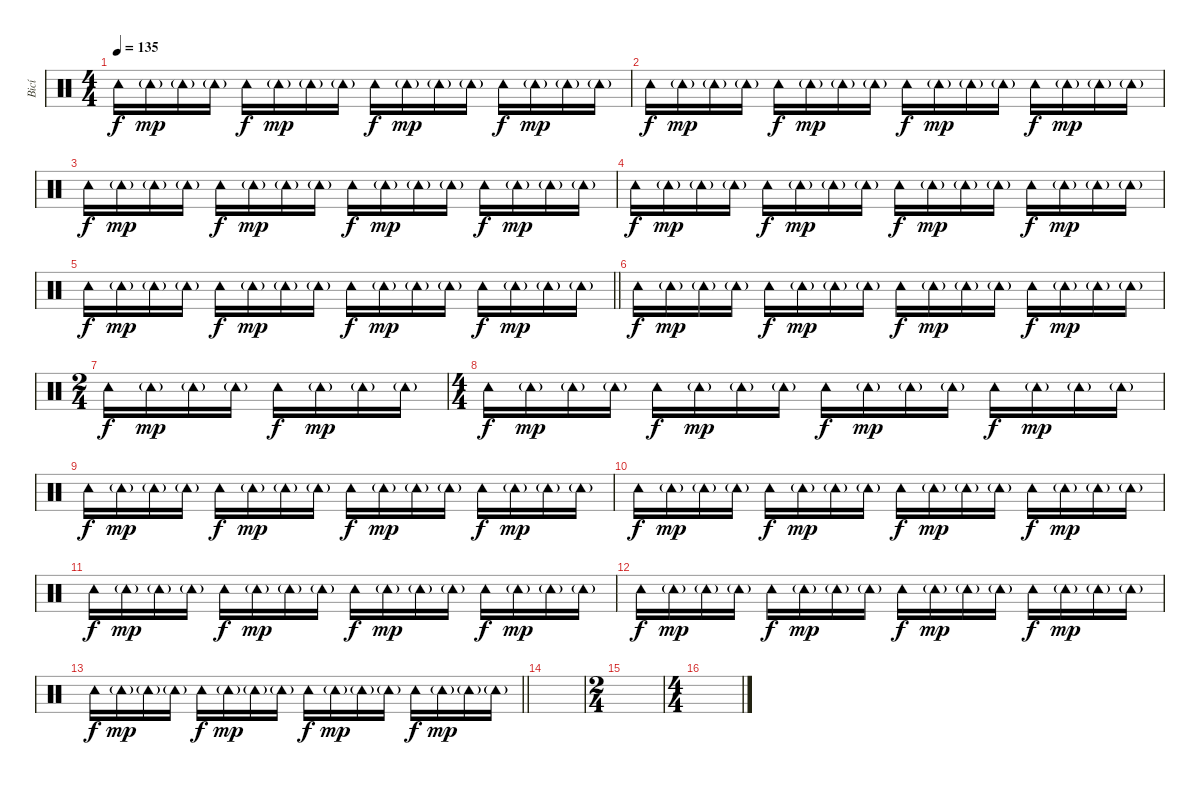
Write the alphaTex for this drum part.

\track ("Bicí" "Bicí") {instrument percussion}
\staff {score}
\articulation defaults
\ts (4 4)
\tempo 135
\clef neutral
\ks c "Tambourine (hit)".16{dy f} "Tambourine (hit)"{g}.16{dy mp} "Tambourine (hit)"{g}.16 "Tambourine (hit)"{g}.16 "Tambourine (hit)".16{dy f} "Tambourine (hit)"{g}.16{dy mp} "Tambourine (hit)"{g}.16 "Tambourine (hit)"{g}.16 "Tambourine (hit)".16{dy f} "Tambourine (hit)"{g}.16{dy mp} "Tambourine (hit)"{g}.16 "Tambourine (hit)"{g}.16 "Tambourine (hit)".16{dy f} "Tambourine (hit)"{g}.16{dy mp} "Tambourine (hit)"{g}.16 "Tambourine (hit)"{g}.16
|
"Tambourine (hit)".16{dy f} "Tambourine (hit)"{g}.16{dy mp} "Tambourine (hit)"{g}.16 "Tambourine (hit)"{g}.16 "Tambourine (hit)".16{dy f} "Tambourine (hit)"{g}.16{dy mp} "Tambourine (hit)"{g}.16 "Tambourine (hit)"{g}.16 "Tambourine (hit)".16{dy f} "Tambourine (hit)"{g}.16{dy mp} "Tambourine (hit)"{g}.16 "Tambourine (hit)"{g}.16 "Tambourine (hit)".16{dy f} "Tambourine (hit)"{g}.16{dy mp} "Tambourine (hit)"{g}.16 "Tambourine (hit)"{g}.16 |
"Tambourine (hit)".16{dy f} "Tambourine (hit)"{g}.16{dy mp} "Tambourine (hit)"{g}.16 "Tambourine (hit)"{g}.16 "Tambourine (hit)".16{dy f} "Tambourine (hit)"{g}.16{dy mp} "Tambourine (hit)"{g}.16 "Tambourine (hit)"{g}.16 "Tambourine (hit)".16{dy f} "Tambourine (hit)"{g}.16{dy mp} "Tambourine (hit)"{g}.16 "Tambourine (hit)"{g}.16 "Tambourine (hit)".16{dy f} "Tambourine (hit)"{g}.16{dy mp} "Tambourine (hit)"{g}.16 "Tambourine (hit)"{g}.16 |
"Tambourine (hit)".16{dy f} "Tambourine (hit)"{g}.16{dy mp} "Tambourine (hit)"{g}.16 "Tambourine (hit)"{g}.16 "Tambourine (hit)".16{dy f} "Tambourine (hit)"{g}.16{dy mp} "Tambourine (hit)"{g}.16 "Tambourine (hit)"{g}.16 "Tambourine (hit)".16{dy f} "Tambourine (hit)"{g}.16{dy mp} "Tambourine (hit)"{g}.16 "Tambourine (hit)"{g}.16 "Tambourine (hit)".16{dy f} "Tambourine (hit)"{g}.16{dy mp} "Tambourine (hit)"{g}.16 "Tambourine (hit)"{g}.16 |
\barLineRight lightlight "Tambourine (hit)".16{dy f} "Tambourine (hit)"{g}.16{dy mp} "Tambourine (hit)"{g}.16 "Tambourine (hit)"{g}.16 "Tambourine (hit)".16{dy f} "Tambourine (hit)"{g}.16{dy mp} "Tambourine (hit)"{g}.16 "Tambourine (hit)"{g}.16 "Tambourine (hit)".16{dy f} "Tambourine (hit)"{g}.16{dy mp} "Tambourine (hit)"{g}.16 "Tambourine (hit)"{g}.16 "Tambourine (hit)".16{dy f} "Tambourine (hit)"{g}.16{dy mp} "Tambourine (hit)"{g}.16 "Tambourine (hit)"{g}.16
|
"Tambourine (hit)".16{dy f} "Tambourine (hit)"{g}.16{dy mp} "Tambourine (hit)"{g}.16 "Tambourine (hit)"{g}.16 "Tambourine (hit)".16{dy f} "Tambourine (hit)"{g}.16{dy mp} "Tambourine (hit)"{g}.16 "Tambourine (hit)"{g}.16 "Tambourine (hit)".16{dy f} "Tambourine (hit)"{g}.16{dy mp} "Tambourine (hit)"{g}.16 "Tambourine (hit)"{g}.16 "Tambourine (hit)".16{dy f} "Tambourine (hit)"{g}.16{dy mp} "Tambourine (hit)"{g}.16 "Tambourine (hit)"{g}.16 |
\ts (2 4)
"Tambourine (hit)".16{dy f} "Tambourine (hit)"{g}.16{dy mp} "Tambourine (hit)"{g}.16 "Tambourine (hit)"{g}.16 "Tambourine (hit)".16{dy f} "Tambourine (hit)"{g}.16{dy mp} "Tambourine (hit)"{g}.16 "Tambourine (hit)"{g}.16 |
\ts (4 4)
"Tambourine (hit)".16{dy f} "Tambourine (hit)"{g}.16{dy mp} "Tambourine (hit)"{g}.16 "Tambourine (hit)"{g}.16 "Tambourine (hit)".16{dy f} "Tambourine (hit)"{g}.16{dy mp} "Tambourine (hit)"{g}.16 "Tambourine (hit)"{g}.16 "Tambourine (hit)".16{dy f} "Tambourine (hit)"{g}.16{dy mp} "Tambourine (hit)"{g}.16 "Tambourine (hit)"{g}.16 "Tambourine (hit)".16{dy f} "Tambourine (hit)"{g}.16{dy mp} "Tambourine (hit)"{g}.16 "Tambourine (hit)"{g}.16 |
"Tambourine (hit)".16{dy f} "Tambourine (hit)"{g}.16{dy mp} "Tambourine (hit)"{g}.16 "Tambourine (hit)"{g}.16 "Tambourine (hit)".16{dy f} "Tambourine (hit)"{g}.16{dy mp} "Tambourine (hit)"{g}.16 "Tambourine (hit)"{g}.16 "Tambourine (hit)".16{dy f} "Tambourine (hit)"{g}.16{dy mp} "Tambourine (hit)"{g}.16 "Tambourine (hit)"{g}.16 "Tambourine (hit)".16{dy f} "Tambourine (hit)"{g}.16{dy mp} "Tambourine (hit)"{g}.16 "Tambourine (hit)"{g}.16 |
"Tambourine (hit)".16{dy f} "Tambourine (hit)"{g}.16{dy mp} "Tambourine (hit)"{g}.16 "Tambourine (hit)"{g}.16 "Tambourine (hit)".16{dy f} "Tambourine (hit)"{g}.16{dy mp} "Tambourine (hit)"{g}.16 "Tambourine (hit)"{g}.16 "Tambourine (hit)".16{dy f} "Tambourine (hit)"{g}.16{dy mp} "Tambourine (hit)"{g}.16 "Tambourine (hit)"{g}.16 "Tambourine (hit)".16{dy f} "Tambourine (hit)"{g}.16{dy mp} "Tambourine (hit)"{g}.16 "Tambourine (hit)"{g}.16 |
"Tambourine (hit)".16{dy f} "Tambourine (hit)"{g}.16{dy mp} "Tambourine (hit)"{g}.16 "Tambourine (hit)"{g}.16 "Tambourine (hit)".16{dy f} "Tambourine (hit)"{g}.16{dy mp} "Tambourine (hit)"{g}.16 "Tambourine (hit)"{g}.16 "Tambourine (hit)".16{dy f} "Tambourine (hit)"{g}.16{dy mp} "Tambourine (hit)"{g}.16 "Tambourine (hit)"{g}.16 "Tambourine (hit)".16{dy f} "Tambourine (hit)"{g}.16{dy mp} "Tambourine (hit)"{g}.16 "Tambourine (hit)"{g}.16 |
"Tambourine (hit)".16{dy f} "Tambourine (hit)"{g}.16{dy mp} "Tambourine (hit)"{g}.16 "Tambourine (hit)"{g}.16 "Tambourine (hit)".16{dy f} "Tambourine (hit)"{g}.16{dy mp} "Tambourine (hit)"{g}.16 "Tambourine (hit)"{g}.16 "Tambourine (hit)".16{dy f} "Tambourine (hit)"{g}.16{dy mp} "Tambourine (hit)"{g}.16 "Tambourine (hit)"{g}.16 "Tambourine (hit)".16{dy f} "Tambourine (hit)"{g}.16{dy mp} "Tambourine (hit)"{g}.16 "Tambourine (hit)"{g}.16 |
\barLineRight lightlight "Tambourine (hit)".16{dy f} "Tambourine (hit)"{g}.16{dy mp} "Tambourine (hit)"{g}.16 "Tambourine (hit)"{g}.16 "Tambourine (hit)".16{dy f} "Tambourine (hit)"{g}.16{dy mp} "Tambourine (hit)"{g}.16 "Tambourine (hit)"{g}.16 "Tambourine (hit)".16{dy f} "Tambourine (hit)"{g}.16{dy mp} "Tambourine (hit)"{g}.16 "Tambourine (hit)"{g}.16 "Tambourine (hit)".16{dy f} "Tambourine (hit)"{g}.16{dy mp} "Tambourine (hit)"{g}.16 "Tambourine (hit)"{g}.16
|
|
\ts (2 4)
|
\ts (4 4)
